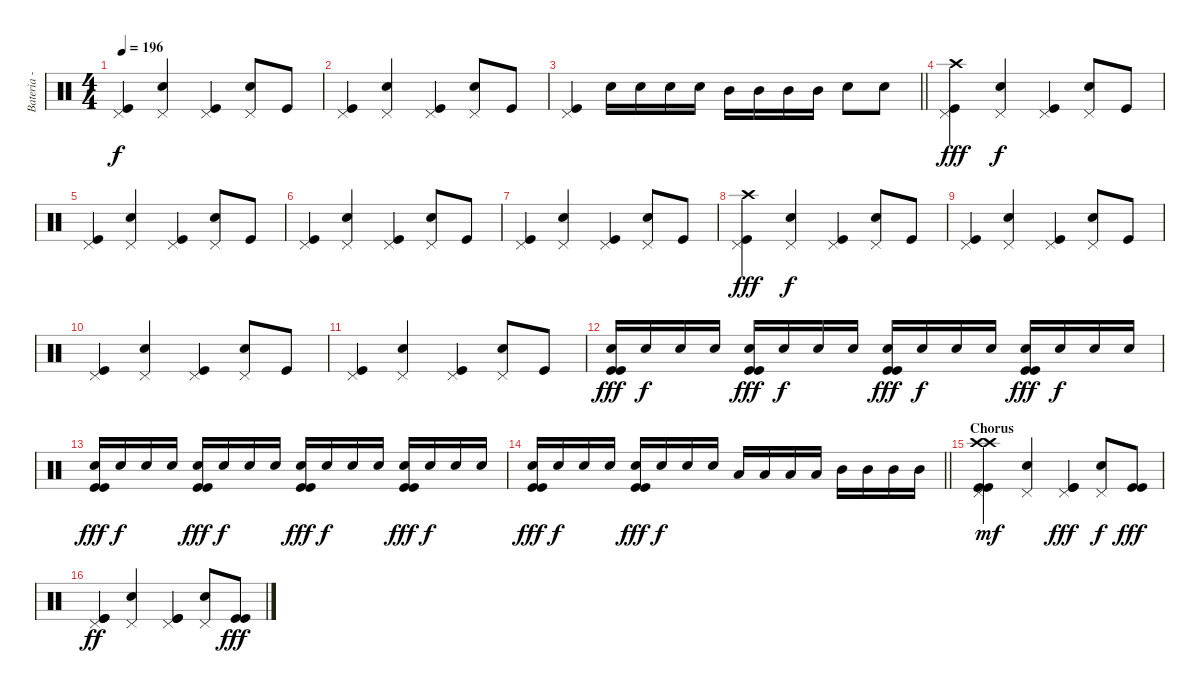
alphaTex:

\track ("Bateria - Larzon" "Bateria - ") {instrument percussion}
\staff {score}
\articulation defaults
\ts (4 4)
\tempo 196
\clef neutral
\ks c
("Kick (hit)" "Pedal Hi-Hat (hit)").4{dy f} ("Electric Snare (hit)" "Pedal Hi-Hat (hit)").4 ("Kick (hit)" "Pedal Hi-Hat (hit)").4 ("Electric Snare (hit)" "Pedal Hi-Hat (hit)").8 "Kick (hit)".8 |
("Kick (hit)" "Pedal Hi-Hat (hit)").4 ("Electric Snare (hit)" "Pedal Hi-Hat (hit)").4 ("Kick (hit)" "Pedal Hi-Hat (hit)").4 ("Electric Snare (hit)" "Pedal Hi-Hat (hit)").8 "Kick (hit)".8 |
\barLineRight lightlight
("Kick (hit)" "Pedal Hi-Hat (hit)").4 "Electric Snare (hit)".16 "Electric Snare (hit)".16 "Electric Snare (hit)".16 "Electric Snare (hit)".16 "Mid Tom (hit)".16 "Mid Tom (hit)".16 "Mid Tom (hit)".16 "Mid Tom (hit)".16 "Electric Snare (hit)".8 "Electric Snare (hit)".8 |
("Kick (hit)" "Crash high (hit)" "Pedal Hi-Hat (hit)").4{dy fff} ("Electric Snare (hit)" "Pedal Hi-Hat (hit)").4{dy f} ("Kick (hit)" "Pedal Hi-Hat (hit)").4 ("Electric Snare (hit)" "Pedal Hi-Hat (hit)").8 "Kick (hit)".8 |
("Kick (hit)" "Pedal Hi-Hat (hit)").4 ("Electric Snare (hit)" "Pedal Hi-Hat (hit)").4 ("Kick (hit)" "Pedal Hi-Hat (hit)").4 ("Electric Snare (hit)" "Pedal Hi-Hat (hit)").8 "Kick (hit)".8 |
("Kick (hit)" "Pedal Hi-Hat (hit)").4 ("Electric Snare (hit)" "Pedal Hi-Hat (hit)").4 ("Kick (hit)" "Pedal Hi-Hat (hit)").4 ("Electric Snare (hit)" "Pedal Hi-Hat (hit)").8 "Kick (hit)".8 |
("Kick (hit)" "Pedal Hi-Hat (hit)").4 ("Electric Snare (hit)" "Pedal Hi-Hat (hit)").4 ("Kick (hit)" "Pedal Hi-Hat (hit)").4 ("Electric Snare (hit)" "Pedal Hi-Hat (hit)").8 "Kick (hit)".8 |
("Kick (hit)" "Crash high (hit)" "Pedal Hi-Hat (hit)").4{dy fff} ("Electric Snare (hit)" "Pedal Hi-Hat (hit)").4{dy f} ("Kick (hit)" "Pedal Hi-Hat (hit)").4 ("Electric Snare (hit)" "Pedal Hi-Hat (hit)").8 "Kick (hit)".8 |
("Kick (hit)" "Pedal Hi-Hat (hit)").4 ("Electric Snare (hit)" "Pedal Hi-Hat (hit)").4 ("Kick (hit)" "Pedal Hi-Hat (hit)").4 ("Electric Snare (hit)" "Pedal Hi-Hat (hit)").8 "Kick (hit)".8 |
("Kick (hit)" "Pedal Hi-Hat (hit)").4 ("Electric Snare (hit)" "Pedal Hi-Hat (hit)").4 ("Kick (hit)" "Pedal Hi-Hat (hit)").4 ("Electric Snare (hit)" "Pedal Hi-Hat (hit)").8 "Kick (hit)".8 |
("Kick (hit)" "Pedal Hi-Hat (hit)").4 ("Electric Snare (hit)" "Pedal Hi-Hat (hit)").4 ("Kick (hit)" "Pedal Hi-Hat (hit)").4 ("Electric Snare (hit)" "Pedal Hi-Hat (hit)").8 "Kick (hit)".8 |
("Electric Snare (hit)" "Kick (hit)" "Kick (hit)").16{dy fff volume 8} "Electric Snare (hit)".16{dy f} "Electric Snare (hit)".16 "Electric Snare (hit)".16 ("Electric Snare (hit)" "Kick (hit)" "Kick (hit)").16{dy fff} "Electric Snare (hit)".16{dy f} "Electric Snare (hit)".16 "Electric Snare (hit)".16 ("Electric Snare (hit)" "Kick (hit)" "Kick (hit)").16{dy fff} "Electric Snare (hit)".16{dy f} "Electric Snare (hit)".16 "Electric Snare (hit)".16 ("Electric Snare (hit)" "Kick (hit)" "Kick (hit)").16{dy fff} "Electric Snare (hit)".16{dy f} "Electric Snare (hit)".16 "Electric Snare (hit)".16 |
("Electric Snare (hit)" "Kick (hit)" "Kick (hit)").16{dy fff volume 9} "Electric Snare (hit)".16{dy f} "Electric Snare (hit)".16 "Electric Snare (hit)".16 ("Electric Snare (hit)" "Kick (hit)" "Kick (hit)").16{dy fff} "Electric Snare (hit)".16{dy f} "Electric Snare (hit)".16 "Electric Snare (hit)".16 ("Electric Snare (hit)" "Kick (hit)" "Kick (hit)").16{dy fff} "Electric Snare (hit)".16{dy f} "Electric Snare (hit)".16 "Electric Snare (hit)".16 ("Electric Snare (hit)" "Kick (hit)" "Kick (hit)").16{dy fff} "Electric Snare (hit)".16{dy f} "Electric Snare (hit)".16 "Electric Snare (hit)".16 |
\barLineRight lightlight
("Electric Snare (hit)" "Kick (hit)" "Kick (hit)").16{dy fff volume 10} "Electric Snare (hit)".16{dy f} "Electric Snare (hit)".16 "Electric Snare (hit)".16 ("Electric Snare (hit)" "Kick (hit)" "Kick (hit)").16{dy fff} "Electric Snare (hit)".16{dy f} "Electric Snare (hit)".16 "Electric Snare (hit)".16 "Low Tom (hit)".16 "Low Tom (hit)".16 "Low Tom (hit)".16 "Low Tom (hit)".16 "Mid Tom (hit)".16 "Mid Tom (hit)".16 "Mid Tom (hit)".16 "Mid Tom (hit)".16 |
\section ("" "Chorus")
("Kick (hit)" "Kick (hit)" "Crash high (hit)" "Crash high (hit)" "Pedal Hi-Hat (hit)").4{dy mf volume 12} ("Electric Snare (hit)" "Pedal Hi-Hat (hit)").4 ("Kick (hit)" "Kick (hit)" "Pedal Hi-Hat (hit)").4{dy fff} ("Electric Snare (hit)" "Pedal Hi-Hat (hit)").8{dy f} ("Kick (hit)" "Kick (hit)").8{dy fff} |
("Kick (hit)" "Kick (hit)" "Pedal Hi-Hat (hit)").4{dy ff} ("Electric Snare (hit)" "Pedal Hi-Hat (hit)").4 ("Kick (hit)" "Kick (hit)" "Pedal Hi-Hat (hit)").4 ("Electric Snare (hit)" "Pedal Hi-Hat (hit)").8 ("Kick (hit)" "Kick (hit)").8{dy fff}
